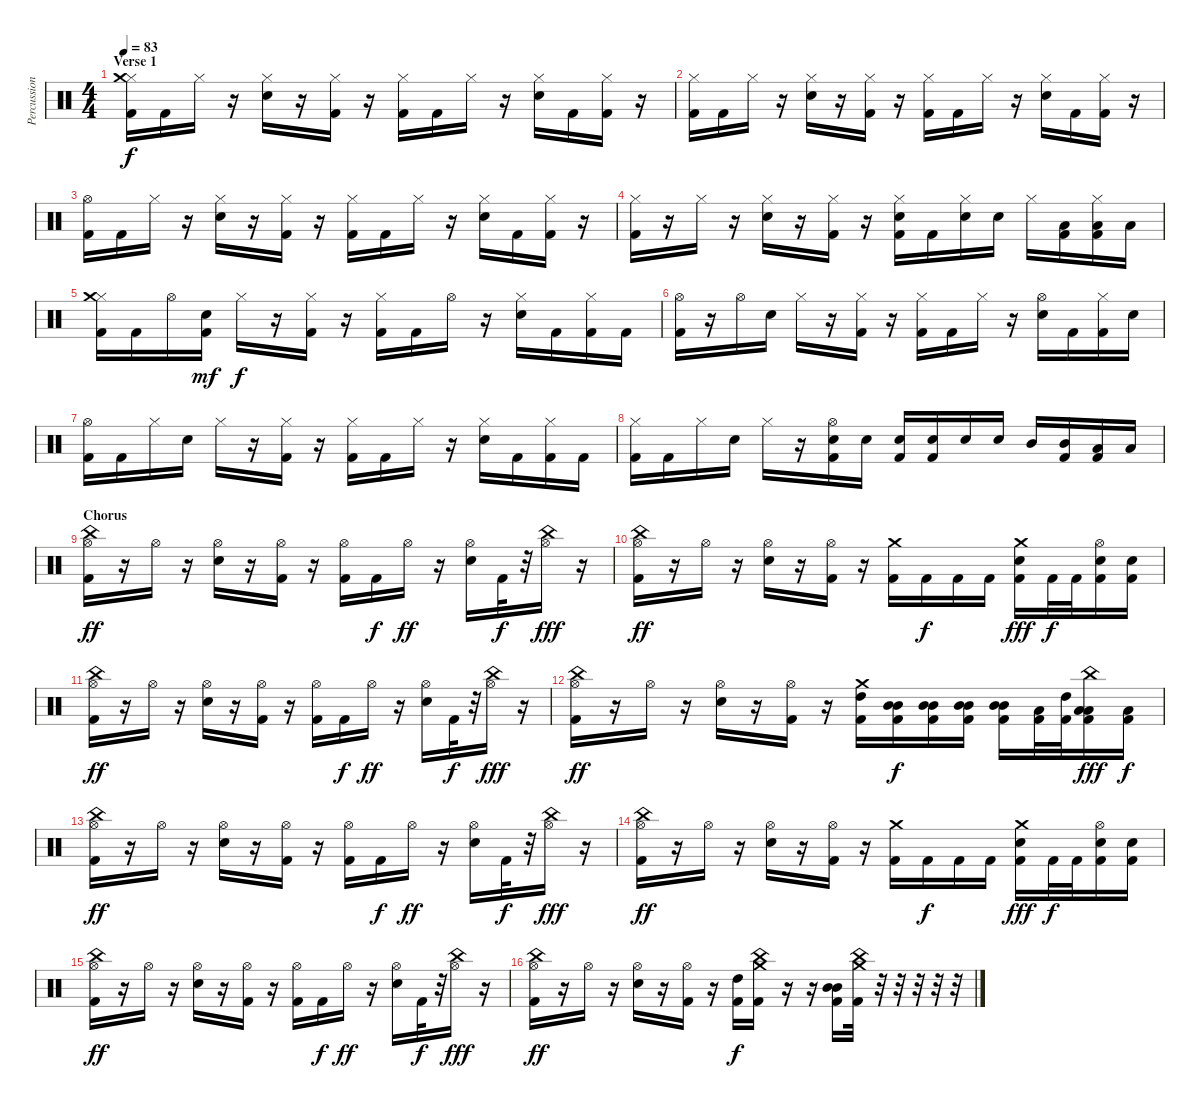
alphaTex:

\track ("Percussion" "Percussion") {instrument percussion}
\staff {score}
\articulation defaults
\ts (4 4)
\section ("" "Verse 1")
\tempo 83
\clef neutral
\ks c
("Hi-Hat (closed)" "Crash medium (hit)" "Kick (hit) 2").16{dy f} "Kick (hit) 2".16 "Hi-Hat (closed)".16 r.16 ("Hi-Hat (closed)" "Snare (hit) 2").16 r.16 ("Hi-Hat (closed)" "Kick (hit) 2").16 r.16 ("Hi-Hat (closed)" "Kick (hit) 2").16 "Kick (hit) 2".16 "Hi-Hat (closed)".16 r.16 ("Hi-Hat (closed)" "Snare (hit) 2").16 "Kick (hit) 2".16 ("Hi-Hat (closed)" "Kick (hit) 2").16 r.16 |
("Hi-Hat (closed)" "Kick (hit) 2").16 "Kick (hit) 2".16 "Hi-Hat (closed)".16 r.16 ("Hi-Hat (closed)" "Snare (hit) 2").16 r.16 ("Hi-Hat (closed)" "Kick (hit) 2").16 r.16 ("Hi-Hat (closed)" "Kick (hit) 2").16 "Kick (hit) 2".16 "Hi-Hat (closed)".16 r.16 ("Hi-Hat (closed)" "Snare (hit) 2").16 "Kick (hit) 2".16 ("Hi-Hat (closed)" "Kick (hit) 2").16 r.16 |
("Hi-Hat (open)" "Kick (hit) 2").16 "Kick (hit) 2".16 "Hi-Hat (closed)".16 r.16 ("Hi-Hat (closed)" "Snare (hit) 2").16 r.16 ("Hi-Hat (closed)" "Kick (hit) 2").16 r.16 ("Hi-Hat (closed)" "Kick (hit) 2").16 "Kick (hit) 2".16 "Hi-Hat (closed)".16 r.16 ("Hi-Hat (closed)" "Snare (hit) 2").16 "Kick (hit) 2".16 ("Hi-Hat (closed)" "Kick (hit) 2").16 r.16 |
("Hi-Hat (closed)" "Kick (hit) 2").16 r.16 "Hi-Hat (closed)".16 r.16 ("Hi-Hat (closed)" "Snare (hit) 2").16 r.16 ("Hi-Hat (closed)" "Kick (hit) 2").16 r.16 ("Hi-Hat (closed)" "Snare (hit) 2" "Kick (hit) 2").16 "Kick (hit) 2".16 ("Hi-Hat (closed)" "Snare (hit) 2").16 "Snare (hit) 2".16 "Hi-Hat (closed)".16 ("Low Tom (hit)" "Kick (hit) 2").16 ("Hi-Hat (closed)" "Low Tom (hit)" "Kick (hit) 2").16 "Low Tom (hit)".16 |
("Hi-Hat (closed)" "Crash medium (hit)" "Kick (hit) 2").16 "Kick (hit) 2".16 "Hi-Hat (open)".16 ("Snare (hit) 2" "Kick (hit) 2").16{dy mf} "Hi-Hat (closed)".16{dy f} r.16 ("Hi-Hat (closed)" "Kick (hit) 2").16 r.16 ("Hi-Hat (closed)" "Kick (hit) 2").16 "Kick (hit) 2".16 "Hi-Hat (open)".16 r.16 ("Hi-Hat (closed)" "Snare (hit) 2").16 "Kick (hit) 2".16 ("Hi-Hat (closed)" "Kick (hit) 2").16 "Kick (hit) 2".16 |
("Hi-Hat (open)" "Kick (hit) 2").16 r.16 "Hi-Hat (open)".16 "Snare (hit) 2".16 "Hi-Hat (closed)".16 r.16 ("Hi-Hat (closed)" "Kick (hit) 2").16 r.16 ("Hi-Hat (closed)" "Kick (hit) 2").16 "Kick (hit) 2".16 "Hi-Hat (closed)".16 r.16 ("Hi-Hat (open)" "Snare (hit) 2").16 "Kick (hit) 2".16 ("Hi-Hat (closed)" "Kick (hit) 2").16 "Snare (hit) 2".16 |
("Hi-Hat (open)" "Kick (hit) 2").16 "Kick (hit) 2".16 "Hi-Hat (closed)".16 "Snare (hit) 2".16 "Hi-Hat (closed)".16 r.16 ("Hi-Hat (closed)" "Kick (hit) 2").16 r.16 ("Hi-Hat (closed)" "Kick (hit) 2").16 "Kick (hit) 2".16 "Hi-Hat (closed)".16 r.16 ("Hi-Hat (closed)" "Snare (hit) 2").16 "Kick (hit) 2".16 ("Hi-Hat (closed)" "Kick (hit) 2").16 "Kick (hit) 2".16 |
("Hi-Hat (closed)" "Kick (hit) 2").16 "Kick (hit) 2".16 "Hi-Hat (closed)".16 "Snare (hit) 2".16 "Hi-Hat (closed)".16 r.16 ("Hi-Hat (open)" "Snare (hit) 2" "Kick (hit) 2").16 "Snare (hit) 2".16 ("Snare (hit) 2" "Kick (hit) 2").16 ("Snare (hit) 2" "Kick (hit) 2").16 "Snare (hit) 2".16 "Snare (hit) 2".16 "Mid Tom (hit)".16 ("Mid Tom (hit)" "Kick (hit) 2").16 ("Low Tom (hit)" "Kick (hit) 2").16 "Low Tom (hit)".16 |
\section ("" "Chorus")
("Hi-Hat (open)" "China (hit)" "Kick (hit) 2").16{dy ff} r.16 "Hi-Hat (open)".16 r.16 ("Hi-Hat (open)" "Snare (hit) 2").16 r.16 ("Hi-Hat (open)" "Kick (hit) 2").16 r.16 ("Hi-Hat (open)" "Kick (hit) 2").16 "Kick (hit) 2".16{dy f} "Hi-Hat (open)".16{dy ff} r.16 ("Hi-Hat (open)" "Snare (hit) 2").16 "Kick (hit) 2".32{dy f} r.32 ("China (hit)" "Hi-Hat (open)").16{dy fff} r.16 |
("Hi-Hat (open)" "China (hit)" "Kick (hit) 2").16{dy ff} r.16 "Hi-Hat (open)".16 r.16 ("Hi-Hat (open)" "Snare (hit) 2").16 r.16 ("Hi-Hat (open)" "Kick (hit) 2").16 r.16 ("Crash medium (hit)" "Kick (hit) 2").16 "Kick (hit) 2".16{dy f} "Kick (hit) 2".16 "Kick (hit) 2".16 ("Crash medium (hit)" "Snare (hit) 2" "Kick (hit) 2").16{dy fff} "Kick (hit) 2".32{dy f} "Kick (hit) 2".32 ("Hi-Hat (open)" "Snare (hit) 2" "Kick (hit) 2").16 ("Snare (hit) 2" "Kick (hit) 2").16 |
("Hi-Hat (open)" "China (hit)" "Kick (hit) 2").16{dy ff} r.16 "Hi-Hat (open)".16 r.16 ("Hi-Hat (open)" "Snare (hit) 2").16 r.16 ("Hi-Hat (open)" "Kick (hit) 2").16 r.16 ("Hi-Hat (open)" "Kick (hit) 2").16 "Kick (hit) 2".16{dy f} "Hi-Hat (open)".16{dy ff} r.16 ("Hi-Hat (open)" "Snare (hit) 2").16 "Kick (hit) 2".32{dy f} r.32 ("China (hit)" "Hi-Hat (open)").16{dy fff} r.16 |
("Hi-Hat (open)" "China (hit)" "Kick (hit) 2").16{dy ff} r.16 "Hi-Hat (open)".16 r.16 ("Hi-Hat (open)" "Snare (hit) 2").16 r.16 ("Hi-Hat (open)" "Kick (hit) 2").16 r.16 ("Crash medium (hit)" "High Tom (hit)" "Kick (hit) 2").16 ("Mid Tom (hit)" "Mid Tom (hit)" "Kick (hit) 2").16{dy f} ("Mid Tom (hit)" "Mid Tom (hit)" "Kick (hit) 2").16 ("Mid Tom (hit)" "Mid Tom (hit)" "Kick (hit) 2").16 ("Mid Tom (hit)" "Mid Tom (hit)" "Kick (hit) 2").16 ("Low Tom (hit)" "Kick (hit) 2").32 ("High Tom (hit)" "Kick (hit) 2").32 ("China (hit)" "Low Tom (hit)" "Low Tom (hit)" "Kick (hit) 2").16{dy fff} ("Low Tom (hit)" "Kick (hit) 2").16{dy f} |
("Hi-Hat (open)" "China (hit)" "Kick (hit) 2").16{dy ff} r.16 "Hi-Hat (open)".16 r.16 ("Hi-Hat (open)" "Snare (hit) 2").16 r.16 ("Hi-Hat (open)" "Kick (hit) 2").16 r.16 ("Hi-Hat (open)" "Kick (hit) 2").16 "Kick (hit) 2".16{dy f} "Hi-Hat (open)".16{dy ff} r.16 ("Hi-Hat (open)" "Snare (hit) 2").16 "Kick (hit) 2".32{dy f} r.32 ("China (hit)" "Hi-Hat (open)").16{dy fff} r.16 |
("Hi-Hat (open)" "China (hit)" "Kick (hit) 2").16{dy ff} r.16 "Hi-Hat (open)".16 r.16 ("Hi-Hat (open)" "Snare (hit) 2").16 r.16 ("Hi-Hat (open)" "Kick (hit) 2").16 r.16 ("Crash medium (hit)" "Kick (hit) 2").16 "Kick (hit) 2".16{dy f} "Kick (hit) 2".16 "Kick (hit) 2".16 ("Crash medium (hit)" "Snare (hit) 2" "Kick (hit) 2").16{dy fff} "Kick (hit) 2".32{dy f} "Kick (hit) 2".32 ("Hi-Hat (open)" "Snare (hit) 2" "Kick (hit) 2").16 ("Snare (hit) 2" "Kick (hit) 2").16 |
("Hi-Hat (open)" "China (hit)" "Kick (hit) 2").16{dy ff} r.16 "Hi-Hat (open)".16 r.16 ("Hi-Hat (open)" "Snare (hit) 2").16 r.16 ("Hi-Hat (open)" "Kick (hit) 2").16 r.16 ("Hi-Hat (open)" "Kick (hit) 2").16 "Kick (hit) 2".16{dy f} "Hi-Hat (open)".16{dy ff} r.16 ("Hi-Hat (open)" "Snare (hit) 2").16 "Kick (hit) 2".32{dy f} r.32 ("China (hit)" "Hi-Hat (open)").16{dy fff} r.16 |
("Hi-Hat (open)" "China (hit)" "Kick (hit) 2").16{dy ff} r.16 "Hi-Hat (open)".16 r.16 ("Hi-Hat (open)" "Snare (hit) 2").16 r.16 ("Hi-Hat (open)" "Kick (hit) 2").16 r.16 ("High Tom (hit)" "Kick (hit) 2").16{dy f} ("Crash medium (hit)" "China (hit)" "Kick (hit) 2").16 r.16 r.16 ("Mid Tom (hit)" "Mid Tom (hit)" "Kick (hit) 2").16 ("Crash medium (hit)" "China (hit)" "Kick (hit) 2").32 r.32 r.32 r.32 r.32 r.32
